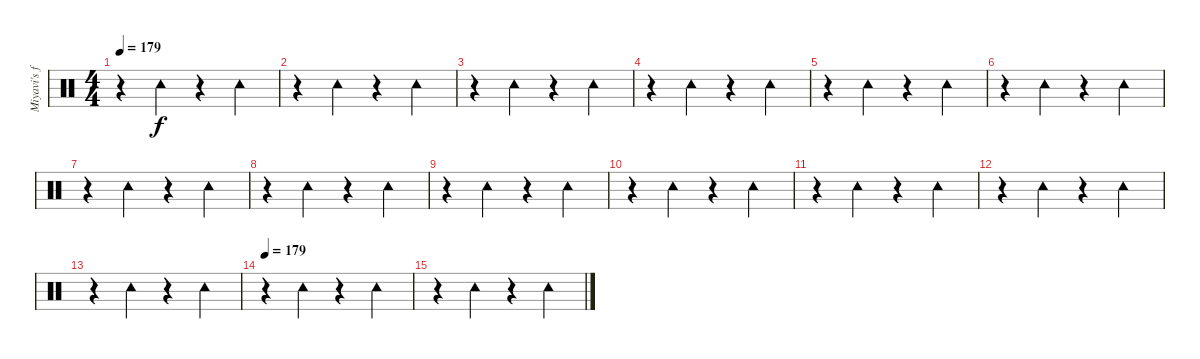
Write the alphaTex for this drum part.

\track ("Miyavi's foot" "Miyavi's f") {instrument percussion}
\staff {score}
\articulation defaults
\ts (4 4)
\tempo 179
\clef neutral
\ks c
r.4{dy f} "Tambourine (hit)".4 r.4 "Tambourine (hit)".4 |
r.4 "Tambourine (hit)".4 r.4 "Tambourine (hit)".4 |
r.4 "Tambourine (hit)".4 r.4 "Tambourine (hit)".4 |
r.4 "Tambourine (hit)".4 r.4 "Tambourine (hit)".4 |
r.4 "Tambourine (hit)".4 r.4 "Tambourine (hit)".4 |
r.4 "Tambourine (hit)".4 r.4 "Tambourine (hit)".4 |
r.4 "Tambourine (hit)".4 r.4 "Tambourine (hit)".4 |
r.4 "Tambourine (hit)".4 r.4 "Tambourine (hit)".4 |
r.4 "Tambourine (hit)".4 r.4 "Tambourine (hit)".4 |
r.4 "Tambourine (hit)".4 r.4 "Tambourine (hit)".4 |
r.4 "Tambourine (hit)".4 r.4 "Tambourine (hit)".4 |
r.4 "Tambourine (hit)".4 r.4 "Tambourine (hit)".4 |
r.4 "Tambourine (hit)".4 r.4 "Tambourine (hit)".4 |
\tempo 179
r.4 "Tambourine (hit)".4 r.4 "Tambourine (hit)".4 |
r.4 "Tambourine (hit)".4 r.4 "Tambourine (hit)".4
